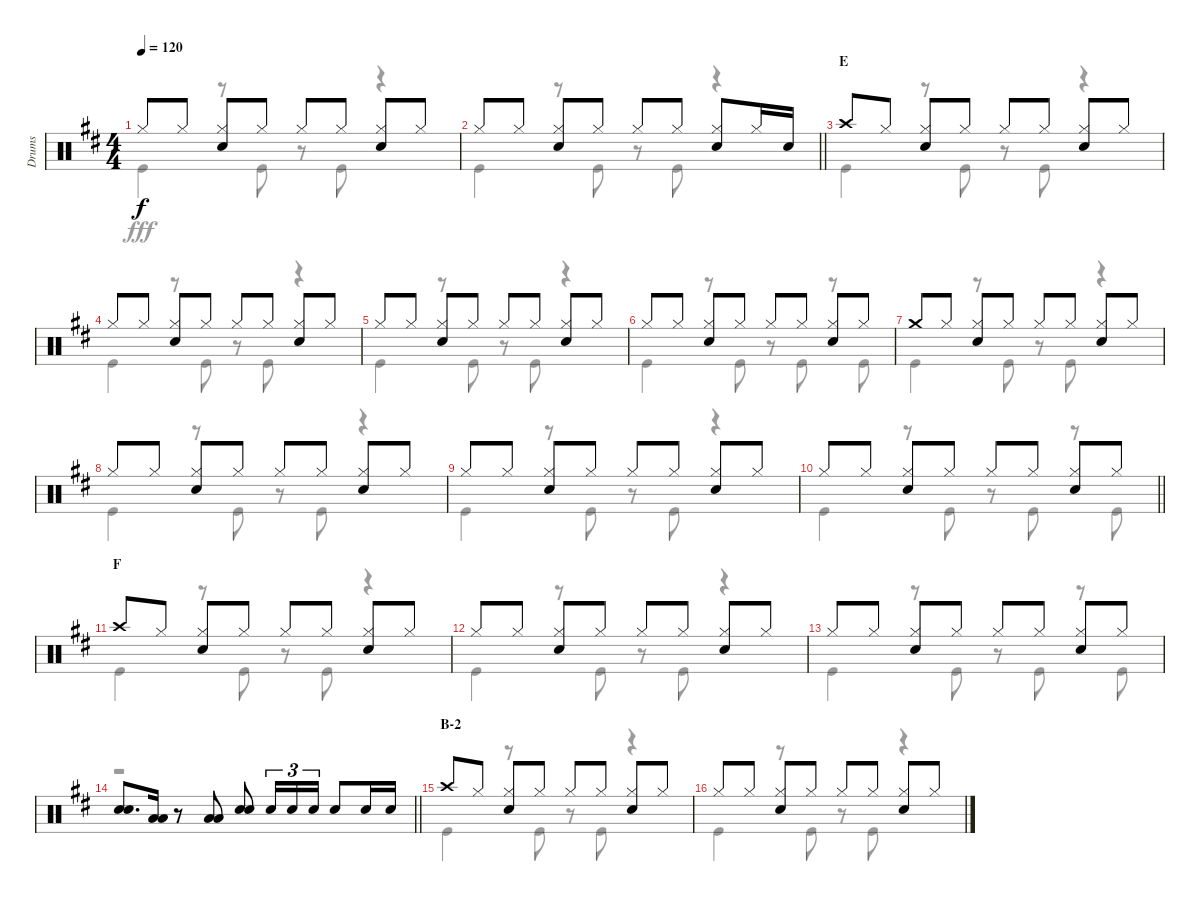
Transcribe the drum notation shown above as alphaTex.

\track ("Drums" "Drums") {instrument percussion}
\staff {score}
\articulation defaults
\voice
\ts (4 4)
\tempo 120
\clef neutral
\ks d "Hi-Hat (closed)".8{dy f} "Hi-Hat (closed)".8
("Hi-Hat (closed)" "Snare (hit) 2").8 "Hi-Hat (closed)".8 "Hi-Hat (closed)".8 "Hi-Hat (closed)".8 ("Hi-Hat (closed)" "Snare (hit) 2").8 "Hi-Hat (closed)".8 |
\barLineRight lightlight "Hi-Hat (closed)".8 "Hi-Hat (closed)".8
("Hi-Hat (closed)" "Snare (hit) 2").8 "Hi-Hat (closed)".8 "Hi-Hat (closed)".8 "Hi-Hat (closed)".8 ("Hi-Hat (closed)" "Snare (hit) 2").8 "Hi-Hat (closed)".16 "Snare (hit) 2".16 |
\section ("" "E")
"Crash high (hit)".8 "Hi-Hat (closed)".8 ("Hi-Hat (closed)" "Snare (hit) 2").8 "Hi-Hat (closed)".8 "Hi-Hat (closed)".8 "Hi-Hat (closed)".8 ("Hi-Hat (closed)" "Snare (hit) 2").8 "Hi-Hat (closed)".8 |
"Hi-Hat (closed)".8 "Hi-Hat (closed)".8 ("Hi-Hat (closed)" "Snare (hit) 2").8 "Hi-Hat (closed)".8 "Hi-Hat (closed)".8 "Hi-Hat (closed)".8 ("Hi-Hat (closed)" "Snare (hit) 2").8 "Hi-Hat (closed)".8 |
"Hi-Hat (closed)".8 "Hi-Hat (closed)".8 ("Hi-Hat (closed)" "Snare (hit) 2").8 "Hi-Hat (closed)".8 "Hi-Hat (closed)".8 "Hi-Hat (closed)".8 ("Hi-Hat (closed)" "Snare (hit) 2").8 "Hi-Hat (closed)".8 |
"Hi-Hat (closed)".8 "Hi-Hat (closed)".8 ("Hi-Hat (closed)" "Snare (hit) 2").8 "Hi-Hat (closed)".8 "Hi-Hat (closed)".8 "Hi-Hat (closed)".8 ("Hi-Hat (closed)" "Snare (hit) 2").8 "Hi-Hat (closed)".8 |
"Crash medium (hit)".8 "Hi-Hat (closed)".8 ("Hi-Hat (closed)" "Snare (hit) 2").8 "Hi-Hat (closed)".8 "Hi-Hat (closed)".8 "Hi-Hat (closed)".8 ("Hi-Hat (closed)" "Snare (hit) 2").8 "Hi-Hat (closed)".8 |
"Hi-Hat (closed)".8 "Hi-Hat (closed)".8 ("Hi-Hat (closed)" "Snare (hit) 2").8 "Hi-Hat (closed)".8 "Hi-Hat (closed)".8 "Hi-Hat (closed)".8 ("Hi-Hat (closed)" "Snare (hit) 2").8 "Hi-Hat (closed)".8 |
"Hi-Hat (closed)".8 "Hi-Hat (closed)".8 ("Hi-Hat (closed)" "Snare (hit) 2").8 "Hi-Hat (closed)".8 "Hi-Hat (closed)".8 "Hi-Hat (closed)".8 ("Hi-Hat (closed)" "Snare (hit) 2").8 "Hi-Hat (closed)".8 |
\barLineRight lightlight "Hi-Hat (closed)".8 "Hi-Hat (closed)".8
("Hi-Hat (closed)" "Snare (hit) 2").8 "Hi-Hat (closed)".8 "Hi-Hat (closed)".8 "Hi-Hat (closed)".8 ("Hi-Hat (closed)" "Snare (hit) 2").8 "Hi-Hat (closed)".8 |
\section ("" "F")
"Crash high (hit)".8 "Hi-Hat (closed)".8 ("Hi-Hat (closed)" "Snare (hit) 2").8 "Hi-Hat (closed)".8 "Hi-Hat (closed)".8 "Hi-Hat (closed)".8 ("Hi-Hat (closed)" "Snare (hit) 2").8 "Hi-Hat (closed)".8 |
"Hi-Hat (closed)".8 "Hi-Hat (closed)".8 ("Hi-Hat (closed)" "Snare (hit) 2").8 "Hi-Hat (closed)".8 "Hi-Hat (closed)".8 "Hi-Hat (closed)".8 ("Hi-Hat (closed)" "Snare (hit) 2").8 "Hi-Hat (closed)".8 |
"Hi-Hat (closed)".8 "Hi-Hat (closed)".8 ("Hi-Hat (closed)" "Snare (hit) 2").8 "Hi-Hat (closed)".8 "Hi-Hat (closed)".8 "Hi-Hat (closed)".8 ("Hi-Hat (closed)" "Snare (hit) 2").8 "Hi-Hat (closed)".8 |
\barLineRight lightlight
("Snare (hit) 2" "Snare (hit) 2").8{d} ("Low Tom (hit)" "Low Tom (hit)").16 r.8 ("Low Tom (hit)" "Low Tom (hit)").8 ("Snare (hit) 2" "Snare (hit) 2").8 "Snare (hit) 2".16{tu (3 2)} "Snare (hit) 2".16{tu (3 2)} "Snare (hit) 2".16{tu (3 2)} "Snare (hit) 2".8 "Snare (hit) 2".16 "Snare (hit) 2".16 |
\section ("" "B-2")
"Crash high (hit)".8 "Hi-Hat (closed)".8 ("Hi-Hat (closed)" "Snare (hit) 2").8 "Hi-Hat (closed)".8 "Hi-Hat (closed)".8 "Hi-Hat (closed)".8 ("Hi-Hat (closed)" "Snare (hit) 2").8 "Hi-Hat (closed)".8 |
"Hi-Hat (closed)".8 "Hi-Hat (closed)".8 ("Hi-Hat (closed)" "Snare (hit) 2").8 "Hi-Hat (closed)".8 "Hi-Hat (closed)".8 "Hi-Hat (closed)".8 ("Hi-Hat (closed)" "Snare (hit) 2").8 "Hi-Hat (closed)".8
\voice
\clef neutral
\ottava regular
\simile none
\ks d "Kick (hit)".4{dy fff}
r.8 "Kick (hit)".8 r.8 "Kick (hit)".8 r.4 |
\barLineRight lightlight "Kick (hit)".4
r.8 "Kick (hit)".8 r.8 "Kick (hit)".8 r.4 |
"Kick (hit)".4 r.8 "Kick (hit)".8 r.8 "Kick (hit)".8 r.4 |
"Kick (hit)".4 r.8 "Kick (hit)".8 r.8 "Kick (hit)".8 r.4 |
"Kick (hit)".4 r.8 "Kick (hit)".8 r.8 "Kick (hit)".8 r.4 |
"Kick (hit)".4 r.8 "Kick (hit)".8 r.8 "Kick (hit)".8 r.8 "Kick (hit)".8 |
"Kick (hit)".4 r.8 "Kick (hit)".8 r.8 "Kick (hit)".8 r.4 |
"Kick (hit)".4 r.8 "Kick (hit)".8 r.8 "Kick (hit)".8 r.4 |
"Kick (hit)".4 r.8 "Kick (hit)".8 r.8 "Kick (hit)".8 r.4 |
\barLineRight lightlight "Kick (hit)".4
r.8 "Kick (hit)".8 r.8 "Kick (hit)".8 r.8 "Kick (hit)".8 |
"Kick (hit)".4 r.8 "Kick (hit)".8 r.8 "Kick (hit)".8 r.4 |
"Kick (hit)".4 r.8 "Kick (hit)".8 r.8 "Kick (hit)".8 r.4 |
"Kick (hit)".4 r.8 "Kick (hit)".8 r.8 "Kick (hit)".8 r.8 "Kick (hit)".8 |
\barLineRight lightlight
r.1 |
"Kick (hit)".4 r.8 "Kick (hit)".8 r.8 "Kick (hit)".8 r.4 |
"Kick (hit)".4 r.8 "Kick (hit)".8 r.8 "Kick (hit)".8 r.4
